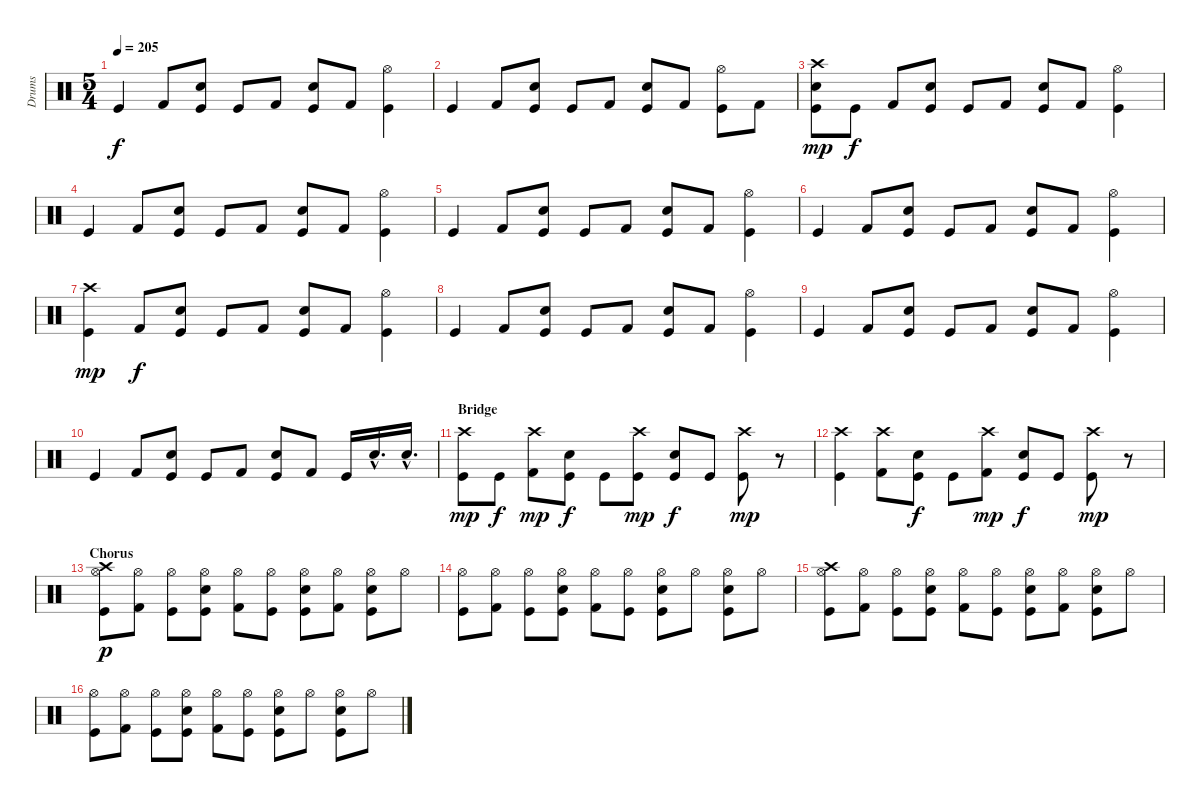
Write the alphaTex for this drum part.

\track ("Drums" "Drums") {instrument percussion}
\staff {score}
\articulation defaults
\ts (5 4)
\tempo 205
\clef neutral
\ks c "Kick (hit)".4{dy f} "Kick (hit) 2".8
("Snare (hit) 2" "Kick (hit)").8 "Kick (hit)".8 "Kick (hit) 2".8 ("Snare (hit) 2" "Kick (hit)").8 "Kick (hit) 2".8 ("Hi-Hat (open)" "Kick (hit)").4 |
"Kick (hit)".4 "Kick (hit) 2".8 ("Snare (hit) 2" "Kick (hit)").8 "Kick (hit)".8 "Kick (hit) 2".8 ("Snare (hit) 2" "Kick (hit)").8 "Kick (hit) 2".8 ("Hi-Hat (open)" "Kick (hit)").8 "Kick (hit) 2".8 |
("Crash high (hit)" "Snare (hit) 2" "Kick (hit)").8{dy mp} "Kick (hit)".8{dy f} "Kick (hit) 2".8 ("Snare (hit) 2" "Kick (hit)").8 "Kick (hit)".8 "Kick (hit) 2".8 ("Snare (hit) 2" "Kick (hit)").8 "Kick (hit) 2".8 ("Hi-Hat (open)" "Kick (hit)").4 |
"Kick (hit)".4 "Kick (hit) 2".8 ("Snare (hit) 2" "Kick (hit)").8 "Kick (hit)".8 "Kick (hit) 2".8 ("Snare (hit) 2" "Kick (hit)").8 "Kick (hit) 2".8 ("Hi-Hat (open)" "Kick (hit)").4 |
"Kick (hit)".4 "Kick (hit) 2".8 ("Snare (hit) 2" "Kick (hit)").8 "Kick (hit)".8 "Kick (hit) 2".8 ("Snare (hit) 2" "Kick (hit)").8 "Kick (hit) 2".8 ("Hi-Hat (open)" "Kick (hit)").4 |
"Kick (hit)".4 "Kick (hit) 2".8 ("Snare (hit) 2" "Kick (hit)").8 "Kick (hit)".8 "Kick (hit) 2".8 ("Snare (hit) 2" "Kick (hit)").8 "Kick (hit) 2".8 ("Hi-Hat (open)" "Kick (hit)").4 |
("Crash high (hit)" "Kick (hit)").4{dy mp} "Kick (hit) 2".8{dy f} ("Snare (hit) 2" "Kick (hit)").8 "Kick (hit)".8 "Kick (hit) 2".8 ("Snare (hit) 2" "Kick (hit)").8 "Kick (hit) 2".8 ("Hi-Hat (open)" "Kick (hit)").4 |
"Kick (hit)".4 "Kick (hit) 2".8 ("Snare (hit) 2" "Kick (hit)").8 "Kick (hit)".8 "Kick (hit) 2".8 ("Snare (hit) 2" "Kick (hit)").8 "Kick (hit) 2".8 ("Hi-Hat (open)" "Kick (hit)").4 |
"Kick (hit)".4 "Kick (hit) 2".8 ("Snare (hit) 2" "Kick (hit)").8 "Kick (hit)".8 "Kick (hit) 2".8 ("Snare (hit) 2" "Kick (hit)").8 "Kick (hit) 2".8 ("Hi-Hat (open)" "Kick (hit)").4 |
"Kick (hit)".4 "Kick (hit) 2".8 ("Snare (hit) 2" "Kick (hit)").8 "Kick (hit)".8 "Kick (hit) 2".8 ("Snare (hit) 2" "Kick (hit)").8 "Kick (hit) 2".8 "Kick (hit)".16 "Snare (hit) 2"{hac}.16{d} "Snare (hit) 2"{hac}.16{d} |
\section ("" "Bridge")
("Crash high (hit)" "Kick (hit)").8{dy mp} "Kick (hit)".8{dy f} ("Crash high (hit)" "Kick (hit) 2").8{dy mp} ("Snare (hit) 2" "Kick (hit)").8{dy f} "Kick (hit)".8 ("Crash high (hit)" "Kick (hit)").8{dy mp} ("Snare (hit) 2" "Kick (hit)").8{dy f} "Kick (hit)".8 ("Crash high (hit)" "Kick (hit)").8{dy mp} r.8 |
("Crash high (hit)" "Kick (hit)").4 ("Crash high (hit)" "Kick (hit) 2").8 ("Snare (hit) 2" "Kick (hit)").8{dy f} "Kick (hit)".8 ("Crash high (hit)" "Kick (hit) 2").8{dy mp} ("Snare (hit) 2" "Kick (hit)").8{dy f} "Kick (hit)".8 ("Crash high (hit)" "Kick (hit)").8{dy mp} r.8 |
\section ("" "Chorus")
("Crash high (hit)" "Hi-Hat (open)" "Kick (hit)").8{dy p} ("Hi-Hat (open)" "Kick (hit) 2").8 ("Hi-Hat (open)" "Kick (hit)").8 ("Hi-Hat (open)" "Snare (hit) 2" "Kick (hit)").8 ("Hi-Hat (open)" "Kick (hit) 2").8 ("Hi-Hat (open)" "Kick (hit)").8 ("Hi-Hat (open)" "Snare (hit) 2" "Kick (hit)").8 ("Hi-Hat (open)" "Kick (hit) 2").8 ("Hi-Hat (open)" "Snare (hit) 2" "Kick (hit)").8 "Hi-Hat (open)".8 |
("Hi-Hat (open)" "Kick (hit)").8 ("Hi-Hat (open)" "Kick (hit) 2").8 ("Hi-Hat (open)" "Kick (hit)").8 ("Hi-Hat (open)" "Snare (hit) 2" "Kick (hit)").8 ("Hi-Hat (open)" "Kick (hit) 2").8 ("Hi-Hat (open)" "Kick (hit)").8 ("Hi-Hat (open)" "Snare (hit) 2" "Kick (hit)").8 "Hi-Hat (open)".8 ("Hi-Hat (open)" "Snare (hit) 2" "Kick (hit)").8 "Hi-Hat (open)".8 |
("Crash high (hit)" "Hi-Hat (open)" "Kick (hit)").8 ("Hi-Hat (open)" "Kick (hit) 2").8 ("Hi-Hat (open)" "Kick (hit)").8 ("Hi-Hat (open)" "Snare (hit) 2" "Kick (hit)").8 ("Hi-Hat (open)" "Kick (hit) 2").8 ("Hi-Hat (open)" "Kick (hit)").8 ("Hi-Hat (open)" "Snare (hit) 2" "Kick (hit)").8 ("Hi-Hat (open)" "Kick (hit) 2").8 ("Hi-Hat (open)" "Snare (hit) 2" "Kick (hit)").8 "Hi-Hat (open)".8 |
("Hi-Hat (open)" "Kick (hit)").8 ("Hi-Hat (open)" "Kick (hit) 2").8 ("Hi-Hat (open)" "Kick (hit)").8 ("Hi-Hat (open)" "Snare (hit) 2" "Kick (hit)").8 ("Hi-Hat (open)" "Kick (hit) 2").8 ("Hi-Hat (open)" "Kick (hit)").8 ("Hi-Hat (open)" "Snare (hit) 2" "Kick (hit)").8 "Hi-Hat (open)".8 ("Hi-Hat (open)" "Snare (hit) 2" "Kick (hit)").8 "Hi-Hat (open)".8
